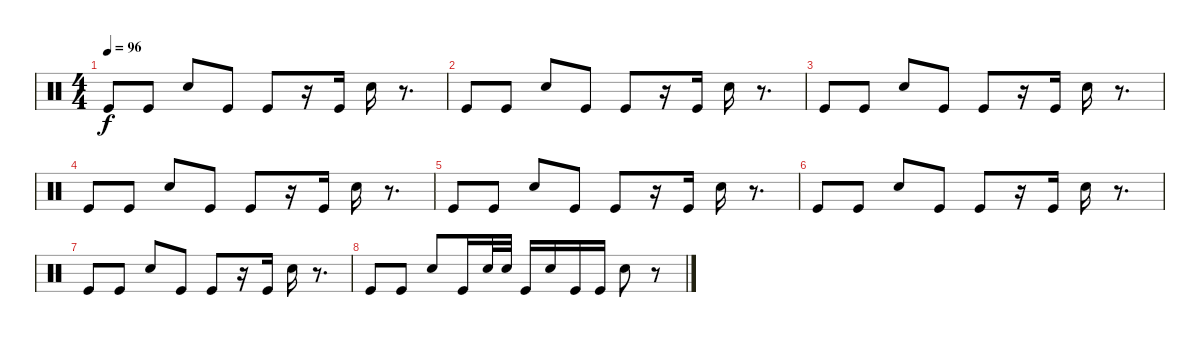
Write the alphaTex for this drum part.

\track "" {instrument percussion}
\staff {score}
\articulation defaults
\ts (4 4)
\tempo 96
\clef neutral
\ks c "Kick (hit)".8{dy f volume 14} "Kick (hit)".8{volume 14} "Snare (hit) 2".8{volume 13} "Kick (hit)".8{volume 13} "Kick (hit)".8{volume 13}
r.16 "Kick (hit)".16{volume 13} "Snare (hit) 2".16{volume 12} r.8{d} |
"Kick (hit)".8{volume 12} "Kick (hit)".8{volume 12} "Snare (hit) 2".8{volume 12} "Kick (hit)".8{volume 11} "Kick (hit)".8{volume 11} r.16 "Kick (hit)".16{volume 11} "Snare (hit) 2".16{volume 11} r.8{d} |
"Kick (hit)".8{volume 10} "Kick (hit)".8{volume 10} "Snare (hit) 2".8{volume 10} "Kick (hit)".8{volume 10} "Kick (hit)".8{volume 10} r.16 "Kick (hit)".16{volume 9} "Snare (hit) 2".16{volume 9} r.8{d} |
"Kick (hit)".8{volume 9} "Kick (hit)".8{volume 8} "Snare (hit) 2".8{volume 8} "Kick (hit)".8{volume 8} "Kick (hit)".8{volume 8} r.16 "Kick (hit)".16{volume 7} "Snare (hit) 2".16 r.8{d} |
"Kick (hit)".8{volume 7} "Kick (hit)".8{volume 7} "Snare (hit) 2".8{volume 6} "Kick (hit)".8{volume 6} "Kick (hit)".8{volume 6} r.16 "Kick (hit)".16{volume 6} "Snare (hit) 2".16{volume 6} r.8{d} |
"Kick (hit)".8{volume 5} "Kick (hit)".8{volume 5} "Snare (hit) 2".8{volume 5} "Kick (hit)".8{volume 4} "Kick (hit)".8{volume 4} r.16 "Kick (hit)".16{volume 4} "Snare (hit) 2".16{volume 4} r.8{d} |
"Kick (hit)".8{volume 3} "Kick (hit)".8{volume 3} "Snare (hit) 2".8{volume 3} "Kick (hit)".8{volume 3} "Kick (hit)".8{volume 2} r.16 "Kick (hit)".16{volume 2} "Snare (hit) 2".16{volume 2} r.8{d} |
"Kick (hit)".8{volume 2} "Kick (hit)".8{volume 2} "Snare (hit) 2".8{volume 1} "Kick (hit)".16{volume 1} "Snare (hit) 2".32{volume 1} "Snare (hit) 2".32 "Kick (hit)".16 "Snare (hit) 2".16{volume 1} "Kick (hit)".16{volume 1} "Kick (hit)".16{volume 0} "Snare (hit) 2".8{volume 0} r.8
